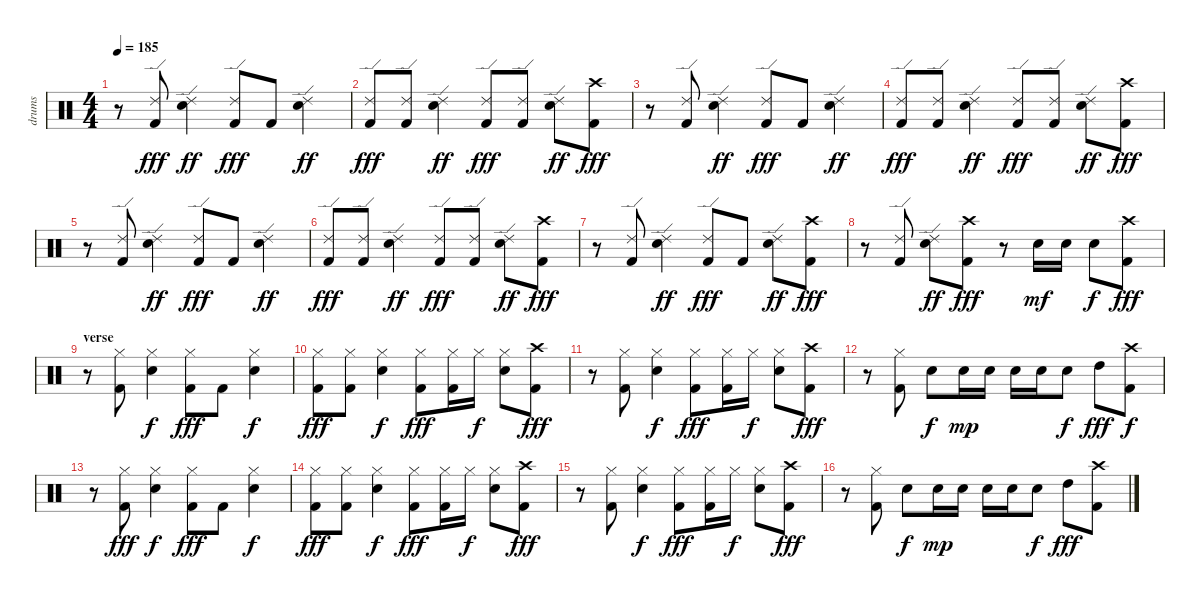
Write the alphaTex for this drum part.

\track ("drums" "drums") {instrument percussion}
\staff {score}
\articulation defaults
\ts (4 4)
\tempo 185
\clef neutral
\ks c
r.8{dy fff} ("Ride (edge) 2" "Kick (hit) 2").8 ("Ride (edge) 2" "Snare (hit) 2").4{dy ff} ("Ride (edge) 2" "Kick (hit) 2").8{dy fff} "Kick (hit) 2".8 ("Ride (edge) 2" "Snare (hit) 2").4{dy ff} |
("Ride (edge) 2" "Kick (hit) 2").8{dy fff} ("Ride (edge) 2" "Kick (hit) 2").8 ("Ride (edge) 2" "Snare (hit) 2").4{dy ff} ("Ride (edge) 2" "Kick (hit) 2").8{dy fff} ("Ride (edge) 2" "Kick (hit) 2").8 ("Ride (edge) 2" "Snare (hit) 2").8{dy ff} ("Crash high (hit)" "Kick (hit) 2").8{dy fff} |
r.8 ("Ride (edge) 2" "Kick (hit) 2").8 ("Ride (edge) 2" "Snare (hit) 2").4{dy ff} ("Ride (edge) 2" "Kick (hit) 2").8{dy fff} "Kick (hit) 2".8 ("Ride (edge) 2" "Snare (hit) 2").4{dy ff} |
("Ride (edge) 2" "Kick (hit) 2").8{dy fff} ("Ride (edge) 2" "Kick (hit) 2").8 ("Ride (edge) 2" "Snare (hit) 2").4{dy ff} ("Ride (edge) 2" "Kick (hit) 2").8{dy fff} ("Ride (edge) 2" "Kick (hit) 2").8 ("Ride (edge) 2" "Snare (hit) 2").8{dy ff} ("Crash high (hit)" "Kick (hit) 2").8{dy fff} |
r.8 ("Ride (edge) 2" "Kick (hit) 2").8 ("Ride (edge) 2" "Snare (hit) 2").4{dy ff} ("Ride (edge) 2" "Kick (hit) 2").8{dy fff} "Kick (hit) 2".8 ("Ride (edge) 2" "Snare (hit) 2").4{dy ff} |
("Ride (edge) 2" "Kick (hit) 2").8{dy fff} ("Ride (edge) 2" "Kick (hit) 2").8 ("Ride (edge) 2" "Snare (hit) 2").4{dy ff} ("Ride (edge) 2" "Kick (hit) 2").8{dy fff} ("Ride (edge) 2" "Kick (hit) 2").8 ("Ride (edge) 2" "Snare (hit) 2").8{dy ff} ("Crash high (hit)" "Kick (hit) 2").8{dy fff} |
r.8 ("Ride (edge) 2" "Kick (hit) 2").8 ("Ride (edge) 2" "Snare (hit) 2").4{dy ff} ("Ride (edge) 2" "Kick (hit) 2").8{dy fff} "Kick (hit) 2".8 ("Ride (edge) 2" "Snare (hit) 2").8{dy ff} ("Crash high (hit)" "Kick (hit) 2").8{dy fff} |
r.8 ("Ride (edge) 2" "Kick (hit) 2").8 ("Ride (edge) 2" "Snare (hit) 2").8{dy ff} ("Crash high (hit)" "Kick (hit) 2").8{dy fff} r.8 "Snare (hit) 2".16{dy mf} "Snare (hit) 2".16 "Snare (hit) 2".8{dy f} ("Crash high (hit)" "Kick (hit) 2").8{dy fff} |
\section ("" "verse")
r.8 ("Hi-Hat (closed)" "Kick (hit) 2").8 ("Hi-Hat (closed)" "Snare (hit) 2").4{dy f} ("Hi-Hat (closed)" "Kick (hit) 2").8{dy fff} "Kick (hit) 2".8 ("Hi-Hat (closed)" "Snare (hit) 2").4{dy f} |
("Hi-Hat (closed)" "Kick (hit) 2").8{dy fff} ("Hi-Hat (closed)" "Kick (hit) 2").8 ("Hi-Hat (closed)" "Snare (hit) 2").4{dy f} ("Hi-Hat (closed)" "Kick (hit) 2").8{dy fff} ("Hi-Hat (closed)" "Kick (hit) 2").16 "Hi-Hat (closed)".16{dy f} ("Hi-Hat (closed)" "Snare (hit) 2").8 ("Crash high (hit)" "Kick (hit) 2").8{dy fff} |
r.8 ("Hi-Hat (closed)" "Kick (hit) 2").8 ("Hi-Hat (closed)" "Snare (hit) 2").4{dy f} ("Hi-Hat (closed)" "Kick (hit) 2").8{dy fff} ("Hi-Hat (closed)" "Kick (hit) 2").16 "Hi-Hat (closed)".16{dy f} ("Hi-Hat (closed)" "Snare (hit) 2").8 ("Crash high (hit)" "Kick (hit) 2").8{dy fff} |
r.8 ("Hi-Hat (closed)" "Kick (hit) 2").8 "Snare (hit) 2".8{dy f} "Snare (hit) 2".16{dy mp} "Snare (hit) 2".16 "Snare (hit) 2".16 "Snare (hit) 2".16 "Snare (hit) 2".8{dy f} "High Tom (hit)".8{dy fff} ("Crash high (hit)" "Kick (hit) 2").8{dy f} |
r.8 ("Hi-Hat (closed)" "Kick (hit) 2").8{dy fff} ("Hi-Hat (closed)" "Snare (hit) 2").4{dy f} ("Hi-Hat (closed)" "Kick (hit) 2").8{dy fff} "Kick (hit) 2".8 ("Hi-Hat (closed)" "Snare (hit) 2").4{dy f} |
("Hi-Hat (closed)" "Kick (hit) 2").8{dy fff} ("Hi-Hat (closed)" "Kick (hit) 2").8 ("Hi-Hat (closed)" "Snare (hit) 2").4{dy f} ("Hi-Hat (closed)" "Kick (hit) 2").8{dy fff} ("Hi-Hat (closed)" "Kick (hit) 2").16 "Hi-Hat (closed)".16{dy f} ("Hi-Hat (closed)" "Snare (hit) 2").8 ("Crash high (hit)" "Kick (hit) 2").8{dy fff} |
r.8 ("Hi-Hat (closed)" "Kick (hit) 2").8 ("Hi-Hat (closed)" "Snare (hit) 2").4{dy f} ("Hi-Hat (closed)" "Kick (hit) 2").8{dy fff} ("Hi-Hat (closed)" "Kick (hit) 2").16 "Hi-Hat (closed)".16{dy f} ("Hi-Hat (closed)" "Snare (hit) 2").8 ("Crash high (hit)" "Kick (hit) 2").8{dy fff} |
r.8 ("Hi-Hat (closed)" "Kick (hit) 2").8 "Snare (hit) 2".8{dy f} "Snare (hit) 2".16{dy mp} "Snare (hit) 2".16 "Snare (hit) 2".16 "Snare (hit) 2".16 "Snare (hit) 2".8{dy f} "High Tom (hit)".8{dy fff} ("Crash high (hit)" "Kick (hit) 2").8
